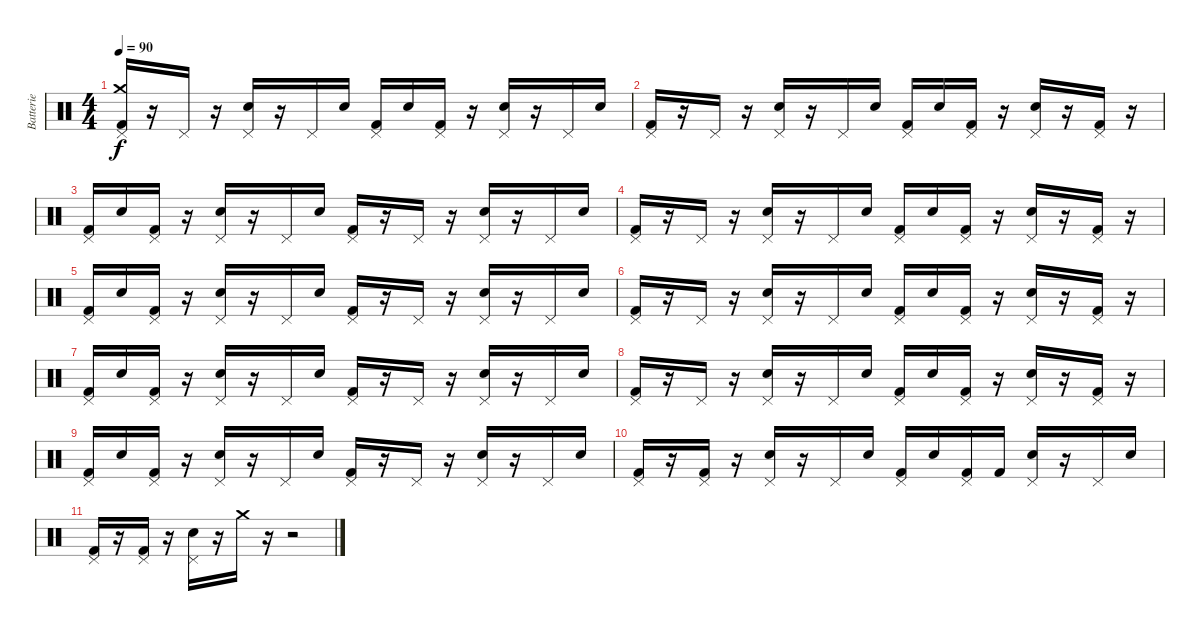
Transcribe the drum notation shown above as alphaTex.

\track ("Batterie" "Batterie") {instrument percussion}
\staff {score}
\articulation defaults
\ts (4 4)
\tempo 90
\clef neutral
\ks c
("Pedal Hi-Hat (hit)" "Crash medium (hit)" "Kick (hit) 2").16{dy f} r.16 "Pedal Hi-Hat (hit)".16 r.16 ("Pedal Hi-Hat (hit)" "Electric Snare (hit)").16 r.16 "Pedal Hi-Hat (hit)".16 "Electric Snare (hit)".16 ("Pedal Hi-Hat (hit)" "Kick (hit) 2").16 "Electric Snare (hit)".16 ("Pedal Hi-Hat (hit)" "Kick (hit) 2").16 r.16 ("Pedal Hi-Hat (hit)" "Electric Snare (hit)").16 r.16 "Pedal Hi-Hat (hit)".16 "Electric Snare (hit)".16 |
("Pedal Hi-Hat (hit)" "Kick (hit) 2").16 r.16 "Pedal Hi-Hat (hit)".16 r.16 ("Pedal Hi-Hat (hit)" "Electric Snare (hit)").16 r.16 "Pedal Hi-Hat (hit)".16 "Electric Snare (hit)".16 ("Pedal Hi-Hat (hit)" "Kick (hit) 2").16 "Electric Snare (hit)".16 ("Pedal Hi-Hat (hit)" "Kick (hit) 2").16 r.16 ("Pedal Hi-Hat (hit)" "Electric Snare (hit)").16 r.16 ("Pedal Hi-Hat (hit)" "Kick (hit) 2").16 r.16 |
("Pedal Hi-Hat (hit)" "Kick (hit) 2").16 "Electric Snare (hit)".16 ("Pedal Hi-Hat (hit)" "Kick (hit) 2").16 r.16 ("Pedal Hi-Hat (hit)" "Electric Snare (hit)").16 r.16 "Pedal Hi-Hat (hit)".16 "Electric Snare (hit)".16 ("Pedal Hi-Hat (hit)" "Kick (hit) 2").16 r.16 "Pedal Hi-Hat (hit)".16 r.16 ("Pedal Hi-Hat (hit)" "Electric Snare (hit)").16 r.16 "Pedal Hi-Hat (hit)".16 "Electric Snare (hit)".16 |
("Pedal Hi-Hat (hit)" "Kick (hit) 2").16 r.16 "Pedal Hi-Hat (hit)".16 r.16 ("Pedal Hi-Hat (hit)" "Electric Snare (hit)").16 r.16 "Pedal Hi-Hat (hit)".16 "Electric Snare (hit)".16 ("Pedal Hi-Hat (hit)" "Kick (hit) 2").16 "Electric Snare (hit)".16 ("Pedal Hi-Hat (hit)" "Kick (hit) 2").16 r.16 ("Pedal Hi-Hat (hit)" "Electric Snare (hit)").16 r.16 ("Pedal Hi-Hat (hit)" "Kick (hit) 2").16 r.16 |
("Pedal Hi-Hat (hit)" "Kick (hit) 2").16 "Electric Snare (hit)".16 ("Pedal Hi-Hat (hit)" "Kick (hit) 2").16 r.16 ("Pedal Hi-Hat (hit)" "Electric Snare (hit)").16 r.16 "Pedal Hi-Hat (hit)".16 "Electric Snare (hit)".16 ("Pedal Hi-Hat (hit)" "Kick (hit) 2").16 r.16 "Pedal Hi-Hat (hit)".16 r.16 ("Pedal Hi-Hat (hit)" "Electric Snare (hit)").16 r.16 "Pedal Hi-Hat (hit)".16 "Electric Snare (hit)".16 |
("Pedal Hi-Hat (hit)" "Kick (hit) 2").16 r.16 "Pedal Hi-Hat (hit)".16 r.16 ("Pedal Hi-Hat (hit)" "Electric Snare (hit)").16 r.16 "Pedal Hi-Hat (hit)".16 "Electric Snare (hit)".16 ("Pedal Hi-Hat (hit)" "Kick (hit) 2").16 "Electric Snare (hit)".16 ("Pedal Hi-Hat (hit)" "Kick (hit) 2").16 r.16 ("Pedal Hi-Hat (hit)" "Electric Snare (hit)").16 r.16 ("Pedal Hi-Hat (hit)" "Kick (hit) 2").16 r.16 |
("Pedal Hi-Hat (hit)" "Kick (hit) 2").16 "Electric Snare (hit)".16 ("Pedal Hi-Hat (hit)" "Kick (hit) 2").16 r.16 ("Pedal Hi-Hat (hit)" "Electric Snare (hit)").16 r.16 "Pedal Hi-Hat (hit)".16 "Electric Snare (hit)".16 ("Pedal Hi-Hat (hit)" "Kick (hit) 2").16 r.16 "Pedal Hi-Hat (hit)".16 r.16 ("Pedal Hi-Hat (hit)" "Electric Snare (hit)").16 r.16 "Pedal Hi-Hat (hit)".16 "Electric Snare (hit)".16 |
("Pedal Hi-Hat (hit)" "Kick (hit) 2").16 r.16 "Pedal Hi-Hat (hit)".16 r.16 ("Pedal Hi-Hat (hit)" "Electric Snare (hit)").16 r.16 "Pedal Hi-Hat (hit)".16 "Electric Snare (hit)".16 ("Pedal Hi-Hat (hit)" "Kick (hit) 2").16 "Electric Snare (hit)".16 ("Pedal Hi-Hat (hit)" "Kick (hit) 2").16 r.16 ("Pedal Hi-Hat (hit)" "Electric Snare (hit)").16 r.16 ("Pedal Hi-Hat (hit)" "Kick (hit) 2").16 r.16 |
("Pedal Hi-Hat (hit)" "Kick (hit) 2").16 "Electric Snare (hit)".16 ("Pedal Hi-Hat (hit)" "Kick (hit) 2").16 r.16 ("Pedal Hi-Hat (hit)" "Electric Snare (hit)").16 r.16 "Pedal Hi-Hat (hit)".16 "Electric Snare (hit)".16 ("Pedal Hi-Hat (hit)" "Kick (hit) 2").16 r.16 "Pedal Hi-Hat (hit)".16 r.16 ("Pedal Hi-Hat (hit)" "Electric Snare (hit)").16 r.16 "Pedal Hi-Hat (hit)".16 "Electric Snare (hit)".16 |
("Pedal Hi-Hat (hit)" "Kick (hit) 2").16 r.16 ("Pedal Hi-Hat (hit)" "Kick (hit) 2").16 r.16 ("Pedal Hi-Hat (hit)" "Electric Snare (hit)").16 r.16 "Pedal Hi-Hat (hit)".16 "Electric Snare (hit)".16 ("Pedal Hi-Hat (hit)" "Kick (hit) 2").16 "Electric Snare (hit)".16 ("Pedal Hi-Hat (hit)" "Kick (hit) 2").16 "Kick (hit) 2".16 ("Pedal Hi-Hat (hit)" "Electric Snare (hit)").16 r.16 "Pedal Hi-Hat (hit)".16 "Electric Snare (hit)".16 |
("Pedal Hi-Hat (hit)" "Kick (hit) 2").16 r.16 ("Pedal Hi-Hat (hit)" "Kick (hit) 2").16 r.16 ("Pedal Hi-Hat (hit)" "Electric Snare (hit)").16 r.16 "Crash medium (hit)".16 r.16 r.2
